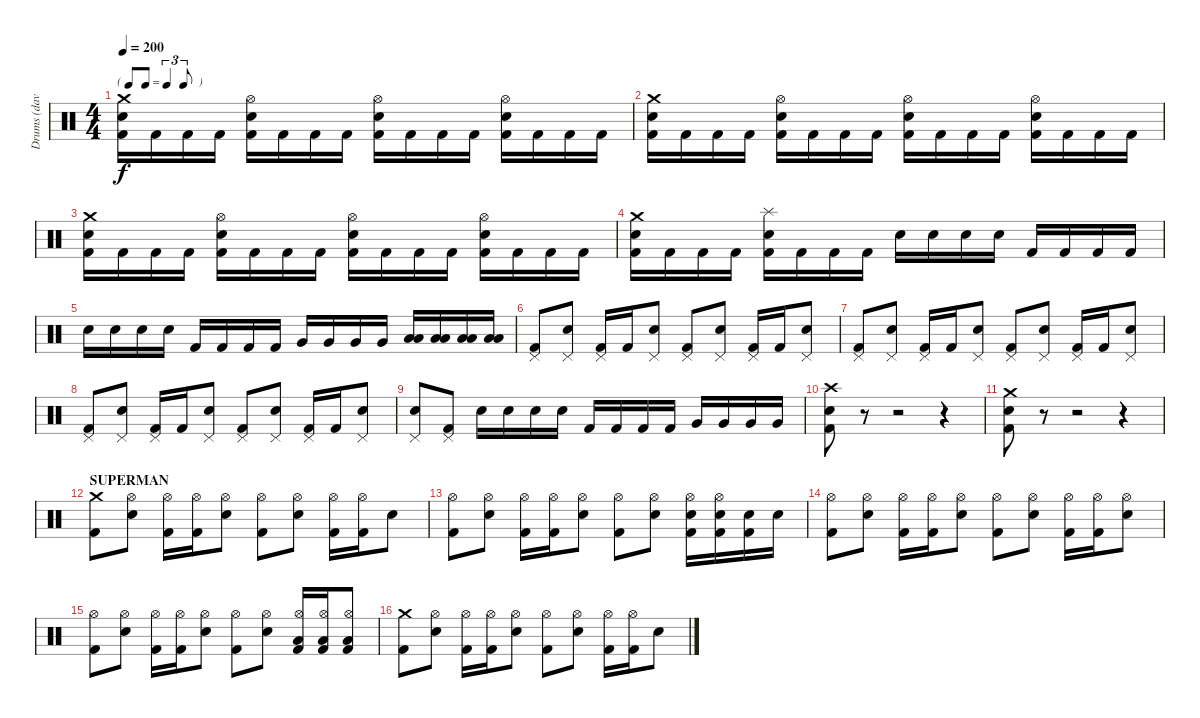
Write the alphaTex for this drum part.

\track ("Drums (dave)" "Drums (dav") {instrument percussion}
\staff {score}
\articulation defaults
\ts (4 4)
\tf triplet8th
\tempo 200
\clef neutral
\ks c
("Crash medium (hit)" "Snare (hit) 2" "Kick (hit) 2").16{dy f} "Kick (hit) 2".16 "Kick (hit) 2".16 "Kick (hit) 2".16 ("Hi-Hat (open)" "Snare (hit) 2" "Kick (hit) 2").16 "Kick (hit) 2".16 "Kick (hit) 2".16 "Kick (hit) 2".16 ("Hi-Hat (open)" "Snare (hit) 2" "Kick (hit) 2").16 "Kick (hit) 2".16 "Kick (hit) 2".16 "Kick (hit) 2".16 ("Hi-Hat (open)" "Snare (hit) 2" "Kick (hit) 2").16 "Kick (hit) 2".16 "Kick (hit) 2".16 "Kick (hit) 2".16 |
("Crash medium (hit)" "Snare (hit) 2" "Kick (hit) 2").16 "Kick (hit) 2".16 "Kick (hit) 2".16 "Kick (hit) 2".16 ("Hi-Hat (open)" "Snare (hit) 2" "Kick (hit) 2").16 "Kick (hit) 2".16 "Kick (hit) 2".16 "Kick (hit) 2".16 ("Hi-Hat (open)" "Snare (hit) 2" "Kick (hit) 2").16 "Kick (hit) 2".16 "Kick (hit) 2".16 "Kick (hit) 2".16 ("Hi-Hat (open)" "Snare (hit) 2" "Kick (hit) 2").16 "Kick (hit) 2".16 "Kick (hit) 2".16 "Kick (hit) 2".16 |
("Crash medium (hit)" "Snare (hit) 2" "Kick (hit) 2").16 "Kick (hit) 2".16 "Kick (hit) 2".16 "Kick (hit) 2".16 ("Hi-Hat (open)" "Snare (hit) 2" "Kick (hit) 2").16 "Kick (hit) 2".16 "Kick (hit) 2".16 "Kick (hit) 2".16 ("Hi-Hat (open)" "Snare (hit) 2" "Kick (hit) 2").16 "Kick (hit) 2".16 "Kick (hit) 2".16 "Kick (hit) 2".16 ("Hi-Hat (open)" "Snare (hit) 2" "Kick (hit) 2").16 "Kick (hit) 2".16 "Kick (hit) 2".16 "Kick (hit) 2".16 |
("Crash medium (hit)" "Snare (hit) 2" "Kick (hit) 2").16 "Kick (hit) 2".16 "Kick (hit) 2".16 "Kick (hit) 2".16 ("Splash (hit)" "Snare (hit) 2" "Kick (hit) 2").16 "Kick (hit) 2".16 "Kick (hit) 2".16 "Kick (hit) 2".16 "Snare (hit) 2".16 "Snare (hit) 2".16 "Snare (hit) 2".16 "Snare (hit) 2".16 "Kick (hit) 2".16 "Kick (hit) 2".16 "Kick (hit) 2".16 "Kick (hit) 2".16 |
"Snare (hit) 2".16 "Snare (hit) 2".16 "Snare (hit) 2".16 "Snare (hit) 2".16 "Kick (hit) 2".16 "Kick (hit) 2".16 "Kick (hit) 2".16 "Kick (hit) 2".16 "Very Low Tom (hit)".16 "Very Low Tom (hit)".16 "Very Low Tom (hit)".16 "Very Low Tom (hit)".16 ("Low Floor Tom (hit)" "Low Floor Tom (hit)").16 ("Low Floor Tom (hit)" "Low Floor Tom (hit)").16 ("Low Floor Tom (hit)" "Low Floor Tom (hit)").16 ("Low Floor Tom (hit)" "Low Floor Tom (hit)").16 |
("Pedal Hi-Hat (hit)" "Kick (hit) 2").8 ("Pedal Hi-Hat (hit)" "Snare (hit) 2").8 ("Pedal Hi-Hat (hit)" "Kick (hit) 2").16 "Kick (hit) 2".16 ("Pedal Hi-Hat (hit)" "Snare (hit) 2").8 ("Pedal Hi-Hat (hit)" "Kick (hit) 2").8 ("Pedal Hi-Hat (hit)" "Snare (hit) 2").8 ("Pedal Hi-Hat (hit)" "Kick (hit) 2").16 "Kick (hit) 2".16 ("Pedal Hi-Hat (hit)" "Snare (hit) 2").8 |
("Pedal Hi-Hat (hit)" "Kick (hit) 2").8 ("Pedal Hi-Hat (hit)" "Snare (hit) 2").8 ("Pedal Hi-Hat (hit)" "Kick (hit) 2").16 "Kick (hit) 2".16 ("Pedal Hi-Hat (hit)" "Snare (hit) 2").8 ("Pedal Hi-Hat (hit)" "Kick (hit) 2").8 ("Pedal Hi-Hat (hit)" "Snare (hit) 2").8 ("Pedal Hi-Hat (hit)" "Kick (hit) 2").16 "Kick (hit) 2".16 ("Pedal Hi-Hat (hit)" "Snare (hit) 2").8 |
("Pedal Hi-Hat (hit)" "Kick (hit) 2").8 ("Pedal Hi-Hat (hit)" "Snare (hit) 2").8 ("Pedal Hi-Hat (hit)" "Kick (hit) 2").16 "Kick (hit) 2".16 ("Pedal Hi-Hat (hit)" "Snare (hit) 2").8 ("Pedal Hi-Hat (hit)" "Kick (hit) 2").8 ("Pedal Hi-Hat (hit)" "Snare (hit) 2").8 ("Pedal Hi-Hat (hit)" "Kick (hit) 2").16 "Kick (hit) 2".16 ("Pedal Hi-Hat (hit)" "Snare (hit) 2").8 |
("Pedal Hi-Hat (hit)" "Snare (hit) 2").8 ("Pedal Hi-Hat (hit)" "Kick (hit) 2").8 "Snare (hit) 2".16 "Snare (hit) 2".16 "Snare (hit) 2".16 "Snare (hit) 2".16 "Kick (hit) 2".16 "Kick (hit) 2".16 "Kick (hit) 2".16 "Kick (hit) 2".16 "Very Low Tom (hit)".16 "Very Low Tom (hit)".16 "Very Low Tom (hit)".16 "Very Low Tom (hit)".16 |
("Crash high (hit)" "Snare (hit) 2" "Kick (hit) 2").8 r.8 r.2 r.4 |
("Crash medium (hit)" "Snare (hit) 2" "Kick (hit) 2").8 r.8 r.2 r.4 |
\section ("" "SUPERMAN")
("Crash medium (hit)" "Kick (hit) 2").8 ("Hi-Hat (open)" "Snare (hit) 2").8 ("Hi-Hat (open)" "Kick (hit) 2").16 ("Hi-Hat (open)" "Kick (hit) 2").16 ("Hi-Hat (open)" "Snare (hit) 2").8 ("Hi-Hat (open)" "Kick (hit) 2").8 ("Hi-Hat (open)" "Snare (hit) 2").8 ("Hi-Hat (open)" "Kick (hit) 2").16 ("Hi-Hat (open)" "Kick (hit) 2").16 "Snare (hit) 2".8 |
("Hi-Hat (open)" "Kick (hit) 2").8 ("Hi-Hat (open)" "Snare (hit) 2").8 ("Hi-Hat (open)" "Kick (hit) 2").16 ("Hi-Hat (open)" "Kick (hit) 2").16 ("Hi-Hat (open)" "Snare (hit) 2").8 ("Hi-Hat (open)" "Kick (hit) 2").8 ("Hi-Hat (open)" "Snare (hit) 2").8 ("Hi-Hat (open)" "Snare (hit) 2" "Kick (hit) 2").16 ("Hi-Hat (open)" "Snare (hit) 2" "Kick (hit) 2").16 ("Snare (hit) 2" "Kick (hit) 2").16 "Snare (hit) 2".16 |
("Hi-Hat (open)" "Kick (hit) 2").8 ("Hi-Hat (open)" "Snare (hit) 2").8 ("Hi-Hat (open)" "Kick (hit) 2").16 ("Hi-Hat (open)" "Kick (hit) 2").16 ("Hi-Hat (open)" "Snare (hit) 2").8 ("Hi-Hat (open)" "Kick (hit) 2").8 ("Hi-Hat (open)" "Snare (hit) 2").8 ("Hi-Hat (open)" "Kick (hit) 2").16 ("Hi-Hat (open)" "Kick (hit) 2").16 ("Hi-Hat (open)" "Snare (hit) 2").8 |
("Hi-Hat (open)" "Kick (hit) 2").8 ("Hi-Hat (open)" "Snare (hit) 2").8 ("Hi-Hat (open)" "Kick (hit) 2").16 ("Hi-Hat (open)" "Kick (hit) 2").16 ("Hi-Hat (open)" "Snare (hit) 2").8 ("Hi-Hat (open)" "Kick (hit) 2").8 ("Hi-Hat (open)" "Snare (hit) 2").8 ("Hi-Hat (open)" "Low Floor Tom (hit)" "Kick (hit) 2").16 ("Hi-Hat (open)" "Low Floor Tom (hit)" "Kick (hit) 2").16 ("Hi-Hat (open)" "Low Floor Tom (hit)" "Kick (hit) 2").8 |
("Crash medium (hit)" "Kick (hit) 2").8 ("Hi-Hat (open)" "Snare (hit) 2").8 ("Hi-Hat (open)" "Kick (hit) 2").16 ("Hi-Hat (open)" "Kick (hit) 2").16 ("Hi-Hat (open)" "Snare (hit) 2").8 ("Hi-Hat (open)" "Kick (hit) 2").8 ("Hi-Hat (open)" "Snare (hit) 2").8 ("Hi-Hat (open)" "Kick (hit) 2").16 ("Hi-Hat (open)" "Kick (hit) 2").16 "Snare (hit) 2".8
